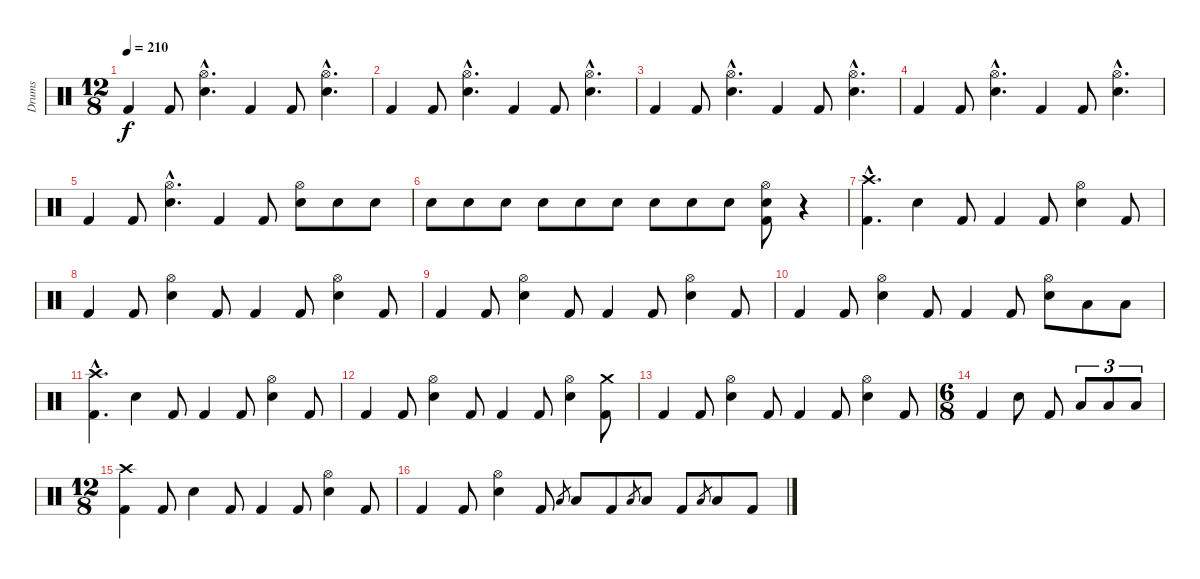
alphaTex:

\track ("Drums" "Drums") {instrument percussion}
\staff {score}
\articulation defaults
\ts (12 8)
\tempo 210
\clef neutral
\ks c "Kick (hit) 2".4{dy f} "Kick (hit) 2".8
("Snare (hit) 2"{hac} "Hi-Hat (open)"{hac}).4{d} "Kick (hit) 2".4 "Kick (hit) 2".8 ("Snare (hit) 2"{hac} "Hi-Hat (open)"{hac}).4{d} |
"Kick (hit) 2".4 "Kick (hit) 2".8 ("Snare (hit) 2"{hac} "Hi-Hat (open)"{hac}).4{d} "Kick (hit) 2".4 "Kick (hit) 2".8 ("Snare (hit) 2"{hac} "Hi-Hat (open)"{hac}).4{d} |
"Kick (hit) 2".4 "Kick (hit) 2".8 ("Snare (hit) 2"{hac} "Hi-Hat (open)"{hac}).4{d} "Kick (hit) 2".4 "Kick (hit) 2".8 ("Snare (hit) 2"{hac} "Hi-Hat (open)"{hac}).4{d} |
"Kick (hit) 2".4 "Kick (hit) 2".8 ("Snare (hit) 2"{hac} "Hi-Hat (open)"{hac}).4{d} "Kick (hit) 2".4 "Kick (hit) 2".8 ("Snare (hit) 2"{hac} "Hi-Hat (open)"{hac}).4{d} |
"Kick (hit) 2".4 "Kick (hit) 2".8 ("Snare (hit) 2"{hac} "Hi-Hat (open)"{hac}).4{d} "Kick (hit) 2".4 "Kick (hit) 2".8 ("Snare (hit) 2" "Hi-Hat (open)").8 "Snare (hit) 2".8 "Snare (hit) 2".8 |
"Snare (hit) 2".8 "Snare (hit) 2".8 "Snare (hit) 2".8 "Snare (hit) 2".8 "Snare (hit) 2".8 "Snare (hit) 2".8 "Snare (hit) 2".8 "Snare (hit) 2".8 "Snare (hit) 2".8 ("Kick (hit) 2" "Snare (hit) 2" "Hi-Hat (open)").8 r.4 |
("Kick (hit) 2"{hac} "Crash high (hit)"{hac}).4{d} "Snare (hit) 2".4 "Kick (hit) 2".8 "Kick (hit) 2".4 "Kick (hit) 2".8 ("Snare (hit) 2" "Hi-Hat (open)").4 "Kick (hit) 2".8 |
"Kick (hit) 2".4 "Kick (hit) 2".8 ("Snare (hit) 2" "Hi-Hat (open)").4 "Kick (hit) 2".8 "Kick (hit) 2".4 "Kick (hit) 2".8 ("Snare (hit) 2" "Hi-Hat (open)").4 "Kick (hit) 2".8 |
"Kick (hit) 2".4 "Kick (hit) 2".8 ("Snare (hit) 2" "Hi-Hat (open)").4 "Kick (hit) 2".8 "Kick (hit) 2".4 "Kick (hit) 2".8 ("Snare (hit) 2" "Hi-Hat (open)").4 "Kick (hit) 2".8 |
"Kick (hit) 2".4 "Kick (hit) 2".8 ("Snare (hit) 2" "Hi-Hat (open)").4 "Kick (hit) 2".8 "Kick (hit) 2".4 "Kick (hit) 2".8 ("Snare (hit) 2" "Hi-Hat (open)").8 "Low Tom (hit)".8 "Low Tom (hit)".8 |
("Kick (hit) 2"{hac} "Crash high (hit)"{hac}).4{d} "Snare (hit) 2".4 "Kick (hit) 2".8 "Kick (hit) 2".4 "Kick (hit) 2".8 ("Snare (hit) 2" "Hi-Hat (open)").4 "Kick (hit) 2".8 |
"Kick (hit) 2".4 "Kick (hit) 2".8 ("Snare (hit) 2" "Hi-Hat (open)").4 "Kick (hit) 2".8 "Kick (hit) 2".4 "Kick (hit) 2".8 ("Snare (hit) 2" "Hi-Hat (open)").4 ("Kick (hit) 2" "Crash medium (hit)").8 |
"Kick (hit) 2".4 "Kick (hit) 2".8 ("Snare (hit) 2" "Hi-Hat (open)").4 "Kick (hit) 2".8 "Kick (hit) 2".4 "Kick (hit) 2".8 ("Snare (hit) 2" "Hi-Hat (open)").4 "Kick (hit) 2".8 |
\ts (6 8)
"Kick (hit) 2".4 "Snare (hit) 2".8 "Kick (hit) 2".8 "Low Tom (hit)".8{tu (3 2)} "Low Tom (hit)".8{tu (3 2)} "Low Tom (hit)".8{tu (3 2)} |
\ts (12 8)
("Kick (hit) 2" "Crash high (hit)").4 "Kick (hit) 2".8 "Snare (hit) 2".4 "Kick (hit) 2".8 "Kick (hit) 2".4 "Kick (hit) 2".8 ("Snare (hit) 2" "Hi-Hat (open)").4 "Kick (hit) 2".8 |
"Kick (hit) 2".4 "Kick (hit) 2".8 ("Snare (hit) 2" "Hi-Hat (open)").4 "Kick (hit) 2".8 "Low Tom (hit)".8{gr} "Low Tom (hit)".8 "Kick (hit) 2".8 "Low Tom (hit)".8{gr} "Low Tom (hit)".8 "Kick (hit) 2".8 "Low Tom (hit)".8{gr} "Low Tom (hit)".8 "Kick (hit) 2".8
